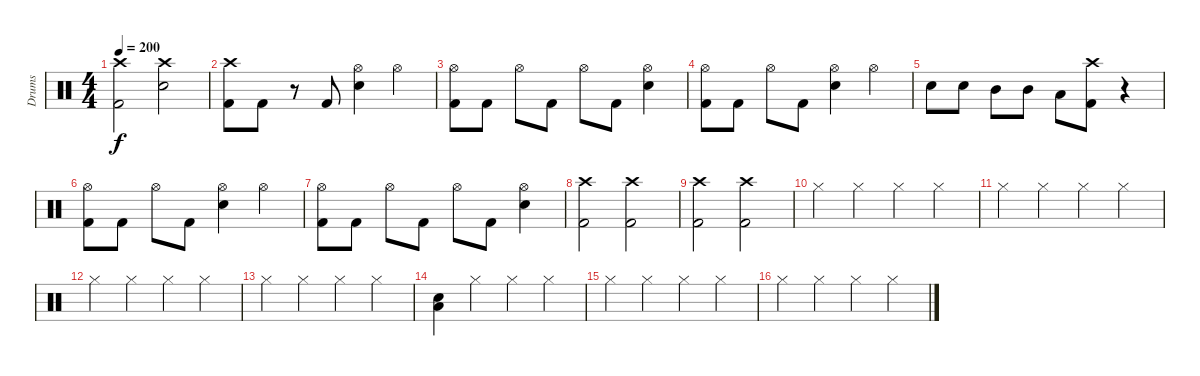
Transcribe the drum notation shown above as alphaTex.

\track ("Drums" "Drums") {instrument percussion}
\staff {score}
\articulation defaults
\ts (4 4)
\tempo 200
\clef neutral
\ks c
("Crash high (hit)" "Kick (hit) 2").2{dy f} ("Crash high (hit)" "Electric Snare (hit)").2 |
("Crash high (hit)" "Kick (hit) 2").8 "Kick (hit) 2".8 r.8 "Kick (hit) 2".8 ("Hi-Hat (open)" "Electric Snare (hit)").4 "Hi-Hat (open)".4 |
("Hi-Hat (open)" "Kick (hit) 2").8 "Kick (hit) 2".8 "Hi-Hat (open)".8 "Kick (hit) 2".8 "Hi-Hat (open)".8 "Kick (hit) 2".8 ("Hi-Hat (open)" "Electric Snare (hit)").4 |
("Hi-Hat (open)" "Kick (hit) 2").8 "Kick (hit) 2".8 "Hi-Hat (open)".8 "Kick (hit) 2".8 ("Hi-Hat (open)" "Electric Snare (hit)").4 "Hi-Hat (open)".4 |
"Electric Snare (hit)".8 "Electric Snare (hit)".8 "Mid Tom (hit)".8 "Mid Tom (hit)".8 "Low Tom (hit)".8 ("Crash high (hit)" "Kick (hit) 2").8 r.4 |
("Hi-Hat (open)" "Kick (hit) 2").8 "Kick (hit) 2".8 "Hi-Hat (open)".8 "Kick (hit) 2".8 ("Hi-Hat (open)" "Electric Snare (hit)").4 "Hi-Hat (open)".4 |
("Hi-Hat (open)" "Kick (hit) 2").8 "Kick (hit) 2".8 "Hi-Hat (open)".8 "Kick (hit) 2".8 "Hi-Hat (open)".8 "Kick (hit) 2".8 ("Hi-Hat (open)" "Electric Snare (hit)").4 |
("Crash high (hit)" "Kick (hit) 2").2 ("Crash high (hit)" "Kick (hit) 2").2 |
("Crash high (hit)" "Kick (hit) 2").2 ("Crash high (hit)" "Kick (hit) 2").2 |
"Hi-Hat (closed)".4 "Hi-Hat (closed)".4 "Hi-Hat (closed)".4 "Hi-Hat (closed)".4 |
"Hi-Hat (closed)".4 "Hi-Hat (closed)".4 "Hi-Hat (closed)".4 "Hi-Hat (closed)".4 |
"Hi-Hat (closed)".4 "Hi-Hat (closed)".4 "Hi-Hat (closed)".4 "Hi-Hat (closed)".4 |
"Hi-Hat (closed)".4 "Hi-Hat (closed)".4 "Hi-Hat (closed)".4 "Hi-Hat (closed)".4 |
("Electric Snare (hit)" "Low Tom (hit)").4 "Hi-Hat (closed)".4 "Hi-Hat (closed)".4 "Hi-Hat (closed)".4 |
"Hi-Hat (closed)".4 "Hi-Hat (closed)".4 "Hi-Hat (closed)".4 "Hi-Hat (closed)".4 |
"Hi-Hat (closed)".4 "Hi-Hat (closed)".4 "Hi-Hat (closed)".4 "Hi-Hat (closed)".4
